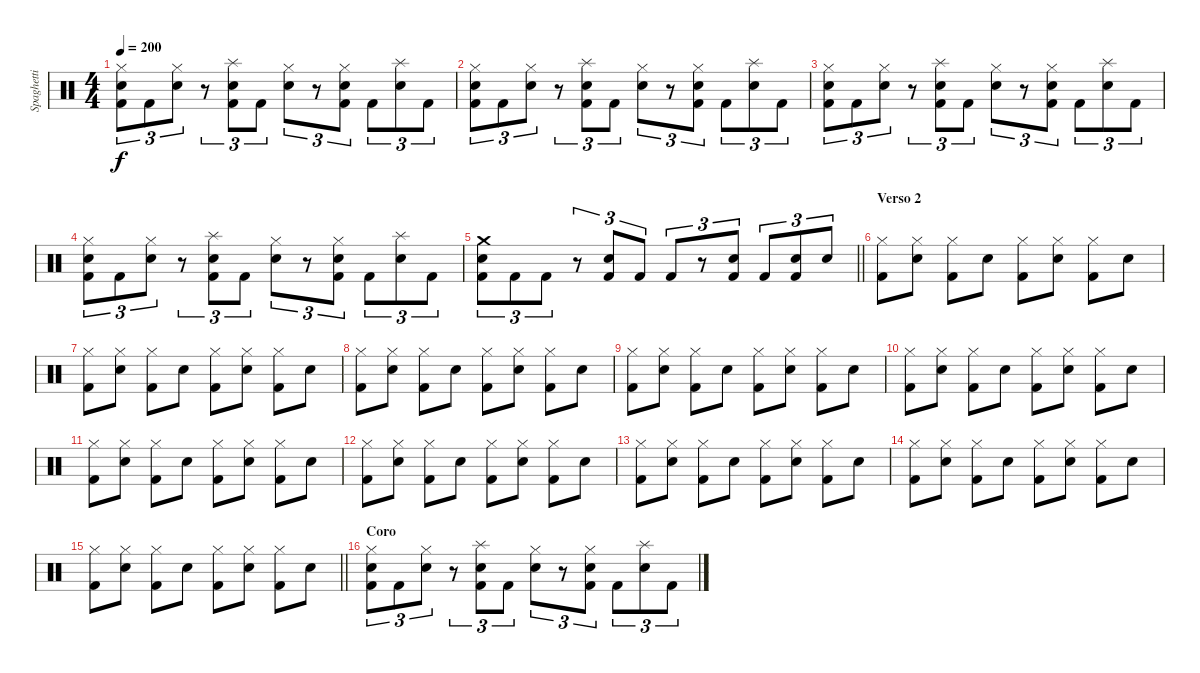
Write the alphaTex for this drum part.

\track ("Spaghetti" "Spaghetti") {instrument percussion}
\staff {score}
\articulation defaults
\ts (4 4)
\tempo 200
\clef neutral
\ks c
("Hi-Hat (closed)" "Snare (hit) 2" "Kick (hit) 2").8{tu (3 2) dy f} "Kick (hit) 2".8{tu (3 2)} ("Hi-Hat (closed)" "Snare (hit) 2").8{tu (3 2)} r.8{tu (3 2)} ("Splash (hit)" "Snare (hit) 2" "Kick (hit) 2").8{tu (3 2)} "Kick (hit) 2".8{tu (3 2)} ("Hi-Hat (closed)" "Snare (hit) 2").8{tu (3 2)} r.8{tu (3 2)} ("Hi-Hat (closed)" "Snare (hit) 2" "Kick (hit) 2").8{tu (3 2)} "Kick (hit) 2".8{tu (3 2)} ("Splash (hit)" "Snare (hit) 2").8{tu (3 2)} "Kick (hit) 2".8{tu (3 2)} |
("Hi-Hat (closed)" "Snare (hit) 2" "Kick (hit) 2").8{tu (3 2)} "Kick (hit) 2".8{tu (3 2)} ("Hi-Hat (closed)" "Snare (hit) 2").8{tu (3 2)} r.8{tu (3 2)} ("Splash (hit)" "Snare (hit) 2" "Kick (hit) 2").8{tu (3 2)} "Kick (hit) 2".8{tu (3 2)} ("Hi-Hat (closed)" "Snare (hit) 2").8{tu (3 2)} r.8{tu (3 2)} ("Hi-Hat (closed)" "Snare (hit) 2" "Kick (hit) 2").8{tu (3 2)} "Kick (hit) 2".8{tu (3 2)} ("Splash (hit)" "Snare (hit) 2").8{tu (3 2)} "Kick (hit) 2".8{tu (3 2)} |
("Hi-Hat (closed)" "Snare (hit) 2" "Kick (hit) 2").8{tu (3 2)} "Kick (hit) 2".8{tu (3 2)} ("Hi-Hat (closed)" "Snare (hit) 2").8{tu (3 2)} r.8{tu (3 2)} ("Splash (hit)" "Snare (hit) 2" "Kick (hit) 2").8{tu (3 2)} "Kick (hit) 2".8{tu (3 2)} ("Hi-Hat (closed)" "Snare (hit) 2").8{tu (3 2)} r.8{tu (3 2)} ("Hi-Hat (closed)" "Snare (hit) 2" "Kick (hit) 2").8{tu (3 2)} "Kick (hit) 2".8{tu (3 2)} ("Splash (hit)" "Snare (hit) 2").8{tu (3 2)} "Kick (hit) 2".8{tu (3 2)} |
("Hi-Hat (closed)" "Snare (hit) 2" "Kick (hit) 2").8{tu (3 2)} "Kick (hit) 2".8{tu (3 2)} ("Hi-Hat (closed)" "Snare (hit) 2").8{tu (3 2)} r.8{tu (3 2)} ("Splash (hit)" "Snare (hit) 2" "Kick (hit) 2").8{tu (3 2)} "Kick (hit) 2".8{tu (3 2)} ("Hi-Hat (closed)" "Snare (hit) 2").8{tu (3 2)} r.8{tu (3 2)} ("Hi-Hat (closed)" "Snare (hit) 2" "Kick (hit) 2").8{tu (3 2)} "Kick (hit) 2".8{tu (3 2)} ("Splash (hit)" "Snare (hit) 2").8{tu (3 2)} "Kick (hit) 2".8{tu (3 2)} |
\barLineRight lightlight
("Crash medium (hit)" "Snare (hit) 2" "Kick (hit) 2").8{tu (3 2)} "Kick (hit) 2".8{tu (3 2)} "Kick (hit) 2".8{tu (3 2)} r.8{tu (3 2)} ("Snare (hit) 2" "Kick (hit) 2").8{tu (3 2)} "Kick (hit) 2".8{tu (3 2)} "Kick (hit) 2".8{tu (3 2)} r.8{tu (3 2)} ("Snare (hit) 2" "Kick (hit) 2").8{tu (3 2)} "Kick (hit) 2".8{tu (3 2)} ("Snare (hit) 2" "Kick (hit) 2").8{tu (3 2)} "Snare (hit) 2".8{tu (3 2)} |
\section ("" "Verso 2")
("Hi-Hat (closed)" "Kick (hit) 2").8 ("Hi-Hat (closed)" "Snare (hit) 2").8 ("Hi-Hat (closed)" "Kick (hit) 2").8 "Snare (hit) 2".8 ("Hi-Hat (closed)" "Kick (hit) 2").8 ("Hi-Hat (closed)" "Snare (hit) 2").8 ("Hi-Hat (closed)" "Kick (hit) 2").8 "Snare (hit) 2".8 |
("Hi-Hat (closed)" "Kick (hit) 2").8 ("Hi-Hat (closed)" "Snare (hit) 2").8 ("Hi-Hat (closed)" "Kick (hit) 2").8 "Snare (hit) 2".8 ("Hi-Hat (closed)" "Kick (hit) 2").8 ("Hi-Hat (closed)" "Snare (hit) 2").8 ("Hi-Hat (closed)" "Kick (hit) 2").8 "Snare (hit) 2".8 |
("Hi-Hat (closed)" "Kick (hit) 2").8 ("Hi-Hat (closed)" "Snare (hit) 2").8 ("Hi-Hat (closed)" "Kick (hit) 2").8 "Snare (hit) 2".8 ("Hi-Hat (closed)" "Kick (hit) 2").8 ("Hi-Hat (closed)" "Snare (hit) 2").8 ("Hi-Hat (closed)" "Kick (hit) 2").8 "Snare (hit) 2".8 |
("Hi-Hat (closed)" "Kick (hit) 2").8 ("Hi-Hat (closed)" "Snare (hit) 2").8 ("Hi-Hat (closed)" "Kick (hit) 2").8 "Snare (hit) 2".8 ("Hi-Hat (closed)" "Kick (hit) 2").8 ("Hi-Hat (closed)" "Snare (hit) 2").8 ("Hi-Hat (closed)" "Kick (hit) 2").8 "Snare (hit) 2".8 |
("Hi-Hat (closed)" "Kick (hit) 2").8 ("Hi-Hat (closed)" "Snare (hit) 2").8 ("Hi-Hat (closed)" "Kick (hit) 2").8 "Snare (hit) 2".8 ("Hi-Hat (closed)" "Kick (hit) 2").8 ("Hi-Hat (closed)" "Snare (hit) 2").8 ("Hi-Hat (closed)" "Kick (hit) 2").8 "Snare (hit) 2".8 |
("Hi-Hat (closed)" "Kick (hit) 2").8 ("Hi-Hat (closed)" "Snare (hit) 2").8 ("Hi-Hat (closed)" "Kick (hit) 2").8 "Snare (hit) 2".8 ("Hi-Hat (closed)" "Kick (hit) 2").8 ("Hi-Hat (closed)" "Snare (hit) 2").8 ("Hi-Hat (closed)" "Kick (hit) 2").8 "Snare (hit) 2".8 |
("Hi-Hat (closed)" "Kick (hit) 2").8 ("Hi-Hat (closed)" "Snare (hit) 2").8 ("Hi-Hat (closed)" "Kick (hit) 2").8 "Snare (hit) 2".8 ("Hi-Hat (closed)" "Kick (hit) 2").8 ("Hi-Hat (closed)" "Snare (hit) 2").8 ("Hi-Hat (closed)" "Kick (hit) 2").8 "Snare (hit) 2".8 |
("Hi-Hat (closed)" "Kick (hit) 2").8 ("Hi-Hat (closed)" "Snare (hit) 2").8 ("Hi-Hat (closed)" "Kick (hit) 2").8 "Snare (hit) 2".8 ("Hi-Hat (closed)" "Kick (hit) 2").8 ("Hi-Hat (closed)" "Snare (hit) 2").8 ("Hi-Hat (closed)" "Kick (hit) 2").8 "Snare (hit) 2".8 |
("Hi-Hat (closed)" "Kick (hit) 2").8 ("Hi-Hat (closed)" "Snare (hit) 2").8 ("Hi-Hat (closed)" "Kick (hit) 2").8 "Snare (hit) 2".8 ("Hi-Hat (closed)" "Kick (hit) 2").8 ("Hi-Hat (closed)" "Snare (hit) 2").8 ("Hi-Hat (closed)" "Kick (hit) 2").8 "Snare (hit) 2".8 |
\barLineRight lightlight
("Hi-Hat (closed)" "Kick (hit) 2").8 ("Hi-Hat (closed)" "Snare (hit) 2").8 ("Hi-Hat (closed)" "Kick (hit) 2").8 "Snare (hit) 2".8 ("Hi-Hat (closed)" "Kick (hit) 2").8 ("Hi-Hat (closed)" "Snare (hit) 2").8 ("Hi-Hat (closed)" "Kick (hit) 2").8 "Snare (hit) 2".8 |
\section ("" "Coro")
("Hi-Hat (closed)" "Snare (hit) 2" "Kick (hit) 2").8{tu (3 2)} "Kick (hit) 2".8{tu (3 2)} ("Hi-Hat (closed)" "Snare (hit) 2").8{tu (3 2)} r.8{tu (3 2)} ("Splash (hit)" "Snare (hit) 2" "Kick (hit) 2").8{tu (3 2)} "Kick (hit) 2".8{tu (3 2)} ("Hi-Hat (closed)" "Snare (hit) 2").8{tu (3 2)} r.8{tu (3 2)} ("Hi-Hat (closed)" "Snare (hit) 2" "Kick (hit) 2").8{tu (3 2)} "Kick (hit) 2".8{tu (3 2)} ("Splash (hit)" "Snare (hit) 2").8{tu (3 2)} "Kick (hit) 2".8{tu (3 2)}
